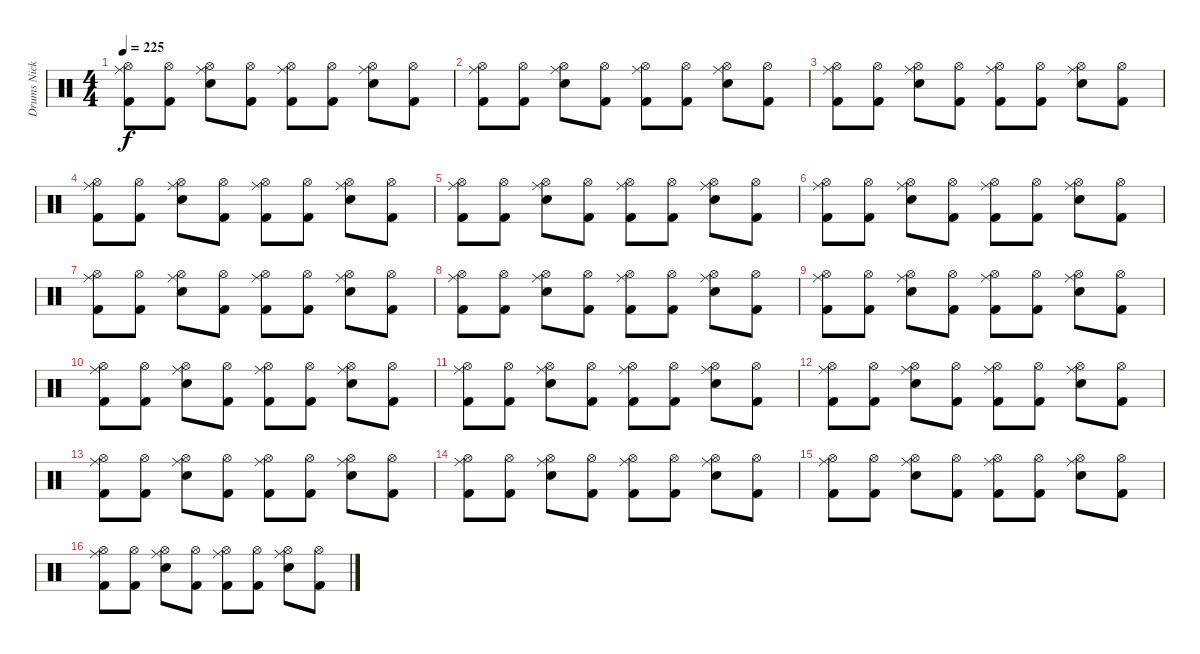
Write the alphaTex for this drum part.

\track ("Drums Nicko McBrain" "Drums Nick") {instrument percussion}
\staff {score}
\articulation defaults
\ts (4 4)
\tempo 225
\clef neutral
\ks c
("Hi-Hat (open)" "Ride (middle)" "Kick (hit) 2").8{dy f} ("Hi-Hat (open)" "Kick (hit) 2").8 ("Hi-Hat (open)" "Ride (middle)" "Snare (hit) 2").8 ("Hi-Hat (open)" "Kick (hit) 2").8 ("Hi-Hat (open)" "Ride (middle)" "Kick (hit) 2").8 ("Hi-Hat (open)" "Kick (hit) 2").8 ("Hi-Hat (open)" "Ride (middle)" "Snare (hit) 2").8 ("Hi-Hat (open)" "Kick (hit) 2").8 |
("Hi-Hat (open)" "Ride (middle)" "Kick (hit) 2").8 ("Hi-Hat (open)" "Kick (hit) 2").8 ("Hi-Hat (open)" "Ride (middle)" "Snare (hit) 2").8 ("Hi-Hat (open)" "Kick (hit) 2").8 ("Hi-Hat (open)" "Ride (middle)" "Kick (hit) 2").8 ("Hi-Hat (open)" "Kick (hit) 2").8 ("Hi-Hat (open)" "Ride (middle)" "Snare (hit) 2").8 ("Hi-Hat (open)" "Kick (hit) 2").8 |
("Hi-Hat (open)" "Ride (middle)" "Kick (hit) 2").8 ("Hi-Hat (open)" "Kick (hit) 2").8 ("Hi-Hat (open)" "Ride (middle)" "Snare (hit) 2").8 ("Hi-Hat (open)" "Kick (hit) 2").8 ("Hi-Hat (open)" "Ride (middle)" "Kick (hit) 2").8 ("Hi-Hat (open)" "Kick (hit) 2").8 ("Hi-Hat (open)" "Ride (middle)" "Snare (hit) 2").8 ("Hi-Hat (open)" "Kick (hit) 2").8 |
("Hi-Hat (open)" "Ride (middle)" "Kick (hit) 2").8 ("Hi-Hat (open)" "Kick (hit) 2").8 ("Hi-Hat (open)" "Ride (middle)" "Snare (hit) 2").8 ("Hi-Hat (open)" "Kick (hit) 2").8 ("Hi-Hat (open)" "Ride (middle)" "Kick (hit) 2").8 ("Hi-Hat (open)" "Kick (hit) 2").8 ("Hi-Hat (open)" "Ride (middle)" "Snare (hit) 2").8 ("Hi-Hat (open)" "Kick (hit) 2").8 |
("Hi-Hat (open)" "Ride (middle)" "Kick (hit) 2").8 ("Hi-Hat (open)" "Kick (hit) 2").8 ("Hi-Hat (open)" "Ride (middle)" "Snare (hit) 2").8 ("Hi-Hat (open)" "Kick (hit) 2").8 ("Hi-Hat (open)" "Ride (middle)" "Kick (hit) 2").8 ("Hi-Hat (open)" "Kick (hit) 2").8 ("Hi-Hat (open)" "Ride (middle)" "Snare (hit) 2").8 ("Hi-Hat (open)" "Kick (hit) 2").8 |
("Hi-Hat (open)" "Ride (middle)" "Kick (hit) 2").8 ("Hi-Hat (open)" "Kick (hit) 2").8 ("Hi-Hat (open)" "Ride (middle)" "Snare (hit) 2").8 ("Hi-Hat (open)" "Kick (hit) 2").8 ("Hi-Hat (open)" "Ride (middle)" "Kick (hit) 2").8 ("Hi-Hat (open)" "Kick (hit) 2").8 ("Hi-Hat (open)" "Ride (middle)" "Snare (hit) 2").8 ("Hi-Hat (open)" "Kick (hit) 2").8 |
("Hi-Hat (open)" "Ride (middle)" "Kick (hit) 2").8 ("Hi-Hat (open)" "Kick (hit) 2").8 ("Hi-Hat (open)" "Ride (middle)" "Snare (hit) 2").8 ("Hi-Hat (open)" "Kick (hit) 2").8 ("Hi-Hat (open)" "Ride (middle)" "Kick (hit) 2").8 ("Hi-Hat (open)" "Kick (hit) 2").8 ("Hi-Hat (open)" "Ride (middle)" "Snare (hit) 2").8 ("Hi-Hat (open)" "Kick (hit) 2").8 |
("Hi-Hat (open)" "Ride (middle)" "Kick (hit) 2").8 ("Hi-Hat (open)" "Kick (hit) 2").8 ("Hi-Hat (open)" "Ride (middle)" "Snare (hit) 2").8 ("Hi-Hat (open)" "Kick (hit) 2").8 ("Hi-Hat (open)" "Ride (middle)" "Kick (hit) 2").8 ("Hi-Hat (open)" "Kick (hit) 2").8 ("Hi-Hat (open)" "Ride (middle)" "Snare (hit) 2").8 ("Hi-Hat (open)" "Kick (hit) 2").8 |
("Hi-Hat (open)" "Ride (middle)" "Kick (hit) 2").8 ("Hi-Hat (open)" "Kick (hit) 2").8 ("Hi-Hat (open)" "Ride (middle)" "Snare (hit) 2").8 ("Hi-Hat (open)" "Kick (hit) 2").8 ("Hi-Hat (open)" "Ride (middle)" "Kick (hit) 2").8 ("Hi-Hat (open)" "Kick (hit) 2").8 ("Hi-Hat (open)" "Ride (middle)" "Snare (hit) 2").8 ("Hi-Hat (open)" "Kick (hit) 2").8 |
("Hi-Hat (open)" "Ride (middle)" "Kick (hit) 2").8 ("Hi-Hat (open)" "Kick (hit) 2").8 ("Hi-Hat (open)" "Ride (middle)" "Snare (hit) 2").8 ("Hi-Hat (open)" "Kick (hit) 2").8 ("Hi-Hat (open)" "Ride (middle)" "Kick (hit) 2").8 ("Hi-Hat (open)" "Kick (hit) 2").8 ("Hi-Hat (open)" "Ride (middle)" "Snare (hit) 2").8 ("Hi-Hat (open)" "Kick (hit) 2").8 |
("Hi-Hat (open)" "Ride (middle)" "Kick (hit) 2").8 ("Hi-Hat (open)" "Kick (hit) 2").8 ("Hi-Hat (open)" "Ride (middle)" "Snare (hit) 2").8 ("Hi-Hat (open)" "Kick (hit) 2").8 ("Hi-Hat (open)" "Ride (middle)" "Kick (hit) 2").8 ("Hi-Hat (open)" "Kick (hit) 2").8 ("Hi-Hat (open)" "Ride (middle)" "Snare (hit) 2").8 ("Hi-Hat (open)" "Kick (hit) 2").8 |
("Hi-Hat (open)" "Ride (middle)" "Kick (hit) 2").8 ("Hi-Hat (open)" "Kick (hit) 2").8 ("Hi-Hat (open)" "Ride (middle)" "Snare (hit) 2").8 ("Hi-Hat (open)" "Kick (hit) 2").8 ("Hi-Hat (open)" "Ride (middle)" "Kick (hit) 2").8 ("Hi-Hat (open)" "Kick (hit) 2").8 ("Hi-Hat (open)" "Ride (middle)" "Snare (hit) 2").8 ("Hi-Hat (open)" "Kick (hit) 2").8 |
("Hi-Hat (open)" "Ride (middle)" "Kick (hit) 2").8 ("Hi-Hat (open)" "Kick (hit) 2").8 ("Hi-Hat (open)" "Ride (middle)" "Snare (hit) 2").8 ("Hi-Hat (open)" "Kick (hit) 2").8 ("Hi-Hat (open)" "Ride (middle)" "Kick (hit) 2").8 ("Hi-Hat (open)" "Kick (hit) 2").8 ("Hi-Hat (open)" "Ride (middle)" "Snare (hit) 2").8 ("Hi-Hat (open)" "Kick (hit) 2").8 |
("Hi-Hat (open)" "Ride (middle)" "Kick (hit) 2").8 ("Hi-Hat (open)" "Kick (hit) 2").8 ("Hi-Hat (open)" "Ride (middle)" "Snare (hit) 2").8 ("Hi-Hat (open)" "Kick (hit) 2").8 ("Hi-Hat (open)" "Ride (middle)" "Kick (hit) 2").8 ("Hi-Hat (open)" "Kick (hit) 2").8 ("Hi-Hat (open)" "Ride (middle)" "Snare (hit) 2").8 ("Hi-Hat (open)" "Kick (hit) 2").8 |
("Hi-Hat (open)" "Ride (middle)" "Kick (hit) 2").8 ("Hi-Hat (open)" "Kick (hit) 2").8 ("Hi-Hat (open)" "Ride (middle)" "Snare (hit) 2").8 ("Hi-Hat (open)" "Kick (hit) 2").8 ("Hi-Hat (open)" "Ride (middle)" "Kick (hit) 2").8 ("Hi-Hat (open)" "Kick (hit) 2").8 ("Hi-Hat (open)" "Ride (middle)" "Snare (hit) 2").8 ("Hi-Hat (open)" "Kick (hit) 2").8 |
("Hi-Hat (open)" "Ride (middle)" "Kick (hit) 2").8 ("Hi-Hat (open)" "Kick (hit) 2").8 ("Hi-Hat (open)" "Ride (middle)" "Snare (hit) 2").8 ("Hi-Hat (open)" "Kick (hit) 2").8 ("Hi-Hat (open)" "Ride (middle)" "Kick (hit) 2").8 ("Hi-Hat (open)" "Kick (hit) 2").8 ("Hi-Hat (open)" "Ride (middle)" "Snare (hit) 2").8 ("Hi-Hat (open)" "Kick (hit) 2").8
